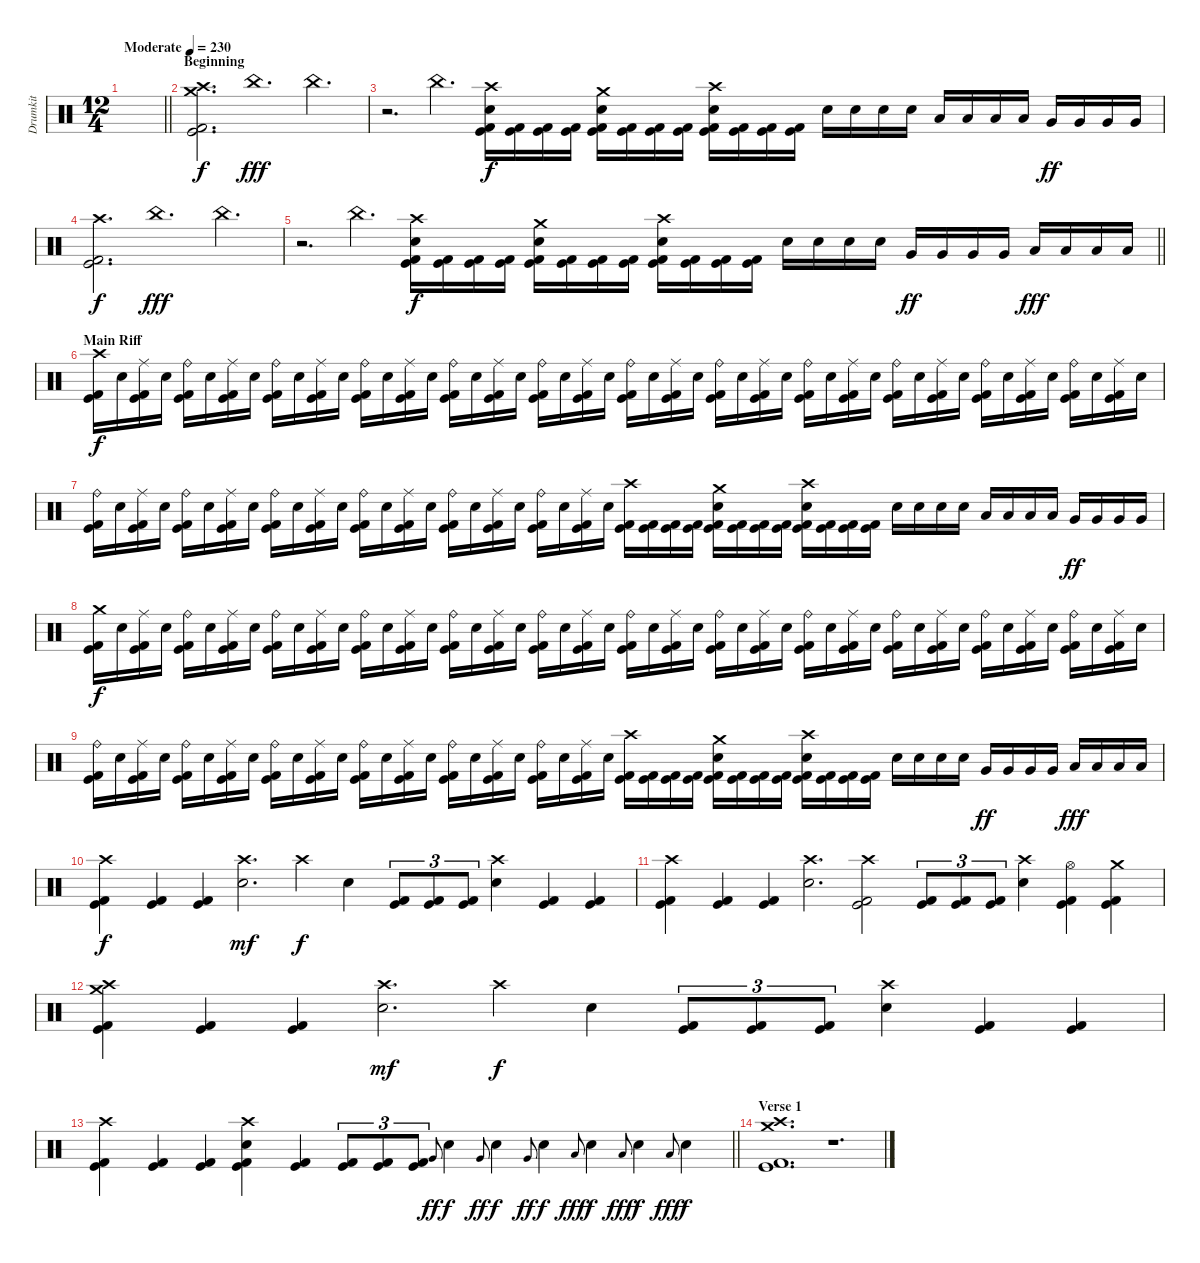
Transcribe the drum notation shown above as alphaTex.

\track ("Drumkit" "Drumkit") {instrument percussion}
\staff {score}
\articulation defaults
\ts (12 4)
\tempo (230 "Moderate")
\clef neutral
\barLineRight lightlight
\ks c
|
\section ("" "Beginning")
("Crash high (hit)" "Crash medium (hit)" "Kick (hit)" "Kick (hit) 2").2{d} "China (hit)".1{d dy fff} "China (hit)".2{d} |
r.2{d} "China (hit)".2{d} ("Crash high (hit)" "Electric Snare (hit)" "Kick (hit)" "Kick (hit) 2").16{dy f} ("Kick (hit)" "Kick (hit) 2").16 ("Kick (hit)" "Kick (hit) 2").16 ("Kick (hit)" "Kick (hit) 2").16 ("Crash medium (hit)" "Electric Snare (hit)" "Kick (hit)" "Kick (hit) 2").16 ("Kick (hit)" "Kick (hit) 2").16 ("Kick (hit)" "Kick (hit) 2").16 ("Kick (hit)" "Kick (hit) 2").16 ("Crash high (hit)" "Electric Snare (hit)" "Kick (hit)" "Kick (hit) 2").16 ("Kick (hit)" "Kick (hit) 2").16 ("Kick (hit)" "Kick (hit) 2").16 ("Kick (hit)" "Kick (hit) 2").16 "Electric Snare (hit)".16 "Electric Snare (hit)".16 "Electric Snare (hit)".16 "Electric Snare (hit)".16 "Low Tom (hit)".16 "Low Tom (hit)".16 "Low Tom (hit)".16 "Low Tom (hit)".16 "Very Low Tom (hit)".16{dy ff} "Very Low Tom (hit)".16 "Very Low Tom (hit)".16 "Very Low Tom (hit)".16 |
("Crash high (hit)" "Kick (hit)" "Kick (hit) 2").2{d dy f} "China (hit)".1{d dy fff} "China (hit)".2{d} |
\barLineRight lightlight
r.2{d} "China (hit)".2{d} ("Crash high (hit)" "Electric Snare (hit)" "Kick (hit)" "Kick (hit) 2").16{dy f} ("Kick (hit)" "Kick (hit) 2").16 ("Kick (hit)" "Kick (hit) 2").16 ("Kick (hit)" "Kick (hit) 2").16 ("Crash medium (hit)" "Electric Snare (hit)" "Kick (hit)" "Kick (hit) 2").16 ("Kick (hit)" "Kick (hit) 2").16 ("Kick (hit)" "Kick (hit) 2").16 ("Kick (hit)" "Kick (hit) 2").16 ("Crash high (hit)" "Electric Snare (hit)" "Kick (hit)" "Kick (hit) 2").16 ("Kick (hit)" "Kick (hit) 2").16 ("Kick (hit)" "Kick (hit) 2").16 ("Kick (hit)" "Kick (hit) 2").16 "Electric Snare (hit)".16 "Electric Snare (hit)".16 "Electric Snare (hit)".16 "Electric Snare (hit)".16 "Very Low Tom (hit)".16{dy ff} "Very Low Tom (hit)".16 "Very Low Tom (hit)".16 "Very Low Tom (hit)".16 "Low Floor Tom (hit)".16{dy fff} "Low Floor Tom (hit)".16 "Low Floor Tom (hit)".16 "Low Floor Tom (hit)".16 |
\section ("" "Main Riff")
("Crash high (hit)" "Kick (hit)" "Kick (hit) 2").16{dy f} "Electric Snare (hit)".16 ("Ride (middle)" "Kick (hit)" "Kick (hit) 2").16 "Electric Snare (hit)".16 ("Ride (bell)" "Kick (hit)" "Kick (hit) 2").16 "Electric Snare (hit)".16 ("Ride (middle)" "Kick (hit)" "Kick (hit) 2").16 "Electric Snare (hit)".16 ("Ride (bell)" "Kick (hit)" "Kick (hit) 2").16 "Electric Snare (hit)".16 ("Ride (middle)" "Kick (hit)" "Kick (hit) 2").16 "Electric Snare (hit)".16 ("Ride (bell)" "Kick (hit)" "Kick (hit) 2").16 "Electric Snare (hit)".16 ("Ride (middle)" "Kick (hit)" "Kick (hit) 2").16 "Electric Snare (hit)".16 ("Ride (bell)" "Kick (hit)" "Kick (hit) 2").16 "Electric Snare (hit)".16 ("Ride (middle)" "Kick (hit)" "Kick (hit) 2").16 "Electric Snare (hit)".16 ("Ride (bell)" "Kick (hit)" "Kick (hit) 2").16 "Electric Snare (hit)".16 ("Ride (middle)" "Kick (hit)" "Kick (hit) 2").16 "Electric Snare (hit)".16 ("Ride (bell)" "Kick (hit)" "Kick (hit) 2").16 "Electric Snare (hit)".16 ("Ride (middle)" "Kick (hit)" "Kick (hit) 2").16 "Electric Snare (hit)".16 ("Ride (bell)" "Kick (hit)" "Kick (hit) 2").16 "Electric Snare (hit)".16 ("Ride (middle)" "Kick (hit)" "Kick (hit) 2").16 "Electric Snare (hit)".16 ("Ride (bell)" "Kick (hit)" "Kick (hit) 2").16 "Electric Snare (hit)".16 ("Ride (middle)" "Kick (hit)" "Kick (hit) 2").16 "Electric Snare (hit)".16 ("Ride (bell)" "Kick (hit)" "Kick (hit) 2").16 "Electric Snare (hit)".16 ("Ride (middle)" "Kick (hit)" "Kick (hit) 2").16 "Electric Snare (hit)".16 ("Ride (bell)" "Kick (hit)" "Kick (hit) 2").16 "Electric Snare (hit)".16 ("Ride (middle)" "Kick (hit)" "Kick (hit) 2").16 "Electric Snare (hit)".16 ("Ride (bell)" "Kick (hit)" "Kick (hit) 2").16 "Electric Snare (hit)".16 ("Ride (middle)" "Kick (hit)" "Kick (hit) 2").16 "Electric Snare (hit)".16 |
("Ride (bell)" "Kick (hit)" "Kick (hit) 2").16 "Electric Snare (hit)".16 ("Ride (middle)" "Kick (hit)" "Kick (hit) 2").16 "Electric Snare (hit)".16 ("Ride (bell)" "Kick (hit)" "Kick (hit) 2").16 "Electric Snare (hit)".16 ("Ride (middle)" "Kick (hit)" "Kick (hit) 2").16 "Electric Snare (hit)".16 ("Ride (bell)" "Kick (hit)" "Kick (hit) 2").16 "Electric Snare (hit)".16 ("Ride (middle)" "Kick (hit)" "Kick (hit) 2").16 "Electric Snare (hit)".16 ("Ride (bell)" "Kick (hit)" "Kick (hit) 2").16 "Electric Snare (hit)".16 ("Ride (middle)" "Kick (hit)" "Kick (hit) 2").16 "Electric Snare (hit)".16 ("Ride (bell)" "Kick (hit)" "Kick (hit) 2").16 "Electric Snare (hit)".16 ("Ride (middle)" "Kick (hit)" "Kick (hit) 2").16 "Electric Snare (hit)".16 ("Ride (bell)" "Kick (hit)" "Kick (hit) 2").16 "Electric Snare (hit)".16 ("Ride (middle)" "Kick (hit)" "Kick (hit) 2").16 "Electric Snare (hit)".16 ("Crash high (hit)" "Kick (hit)" "Kick (hit) 2").16 ("Kick (hit)" "Kick (hit) 2").16 ("Kick (hit)" "Kick (hit) 2").16 ("Kick (hit)" "Kick (hit) 2").16 ("Crash medium (hit)" "Electric Snare (hit)" "Kick (hit)" "Kick (hit) 2").16 ("Kick (hit)" "Kick (hit) 2").16 ("Kick (hit)" "Kick (hit) 2").16 ("Kick (hit)" "Kick (hit) 2").16 ("Crash high (hit)" "Electric Snare (hit)" "Kick (hit)" "Kick (hit) 2").16 ("Kick (hit)" "Kick (hit) 2").16 ("Kick (hit)" "Kick (hit) 2").16 ("Kick (hit)" "Kick (hit) 2").16 "Electric Snare (hit)".16 "Electric Snare (hit)".16 "Electric Snare (hit)".16 "Electric Snare (hit)".16 "Low Tom (hit)".16 "Low Tom (hit)".16 "Low Tom (hit)".16 "Low Tom (hit)".16 "Very Low Tom (hit)".16{dy ff} "Very Low Tom (hit)".16 "Very Low Tom (hit)".16 "Very Low Tom (hit)".16 |
("Crash medium (hit)" "Kick (hit)" "Kick (hit) 2").16{dy f} "Electric Snare (hit)".16 ("Ride (middle)" "Kick (hit)" "Kick (hit) 2").16 "Electric Snare (hit)".16 ("Ride (bell)" "Kick (hit)" "Kick (hit) 2").16 "Electric Snare (hit)".16 ("Ride (middle)" "Kick (hit)" "Kick (hit) 2").16 "Electric Snare (hit)".16 ("Ride (bell)" "Kick (hit)" "Kick (hit) 2").16 "Electric Snare (hit)".16 ("Ride (middle)" "Kick (hit)" "Kick (hit) 2").16 "Electric Snare (hit)".16 ("Ride (bell)" "Kick (hit)" "Kick (hit) 2").16 "Electric Snare (hit)".16 ("Ride (middle)" "Kick (hit)" "Kick (hit) 2").16 "Electric Snare (hit)".16 ("Ride (bell)" "Kick (hit)" "Kick (hit) 2").16 "Electric Snare (hit)".16 ("Ride (middle)" "Kick (hit)" "Kick (hit) 2").16 "Electric Snare (hit)".16 ("Ride (bell)" "Kick (hit)" "Kick (hit) 2").16 "Electric Snare (hit)".16 ("Ride (middle)" "Kick (hit)" "Kick (hit) 2").16 "Electric Snare (hit)".16 ("Ride (bell)" "Kick (hit)" "Kick (hit) 2").16 "Electric Snare (hit)".16 ("Ride (middle)" "Kick (hit)" "Kick (hit) 2").16 "Electric Snare (hit)".16 ("Ride (bell)" "Kick (hit)" "Kick (hit) 2").16 "Electric Snare (hit)".16 ("Ride (middle)" "Kick (hit)" "Kick (hit) 2").16 "Electric Snare (hit)".16 ("Ride (bell)" "Kick (hit)" "Kick (hit) 2").16 "Electric Snare (hit)".16 ("Ride (middle)" "Kick (hit)" "Kick (hit) 2").16 "Electric Snare (hit)".16 ("Ride (bell)" "Kick (hit)" "Kick (hit) 2").16 "Electric Snare (hit)".16 ("Ride (middle)" "Kick (hit)" "Kick (hit) 2").16 "Electric Snare (hit)".16 ("Ride (bell)" "Kick (hit)" "Kick (hit) 2").16 "Electric Snare (hit)".16 ("Ride (middle)" "Kick (hit)" "Kick (hit) 2").16 "Electric Snare (hit)".16 ("Ride (bell)" "Kick (hit)" "Kick (hit) 2").16 "Electric Snare (hit)".16 ("Ride (middle)" "Kick (hit)" "Kick (hit) 2").16 "Electric Snare (hit)".16 |
("Ride (bell)" "Kick (hit)" "Kick (hit) 2").16 "Electric Snare (hit)".16 ("Ride (middle)" "Kick (hit)" "Kick (hit) 2").16 "Electric Snare (hit)".16 ("Ride (bell)" "Kick (hit)" "Kick (hit) 2").16 "Electric Snare (hit)".16 ("Ride (middle)" "Kick (hit)" "Kick (hit) 2").16 "Electric Snare (hit)".16 ("Ride (bell)" "Kick (hit)" "Kick (hit) 2").16 "Electric Snare (hit)".16 ("Ride (middle)" "Kick (hit)" "Kick (hit) 2").16 "Electric Snare (hit)".16 ("Ride (bell)" "Kick (hit)" "Kick (hit) 2").16 "Electric Snare (hit)".16 ("Ride (middle)" "Kick (hit)" "Kick (hit) 2").16 "Electric Snare (hit)".16 ("Ride (bell)" "Kick (hit)" "Kick (hit) 2").16 "Electric Snare (hit)".16 ("Ride (middle)" "Kick (hit)" "Kick (hit) 2").16 "Electric Snare (hit)".16 ("Ride (bell)" "Kick (hit)" "Kick (hit) 2").16 "Electric Snare (hit)".16 ("Ride (middle)" "Kick (hit)" "Kick (hit) 2").16 "Electric Snare (hit)".16 ("Crash high (hit)" "Kick (hit)" "Kick (hit) 2").16 ("Kick (hit)" "Kick (hit) 2").16 ("Kick (hit)" "Kick (hit) 2").16 ("Kick (hit)" "Kick (hit) 2").16 ("Crash medium (hit)" "Electric Snare (hit)" "Kick (hit)" "Kick (hit) 2").16 ("Kick (hit)" "Kick (hit) 2").16 ("Kick (hit)" "Kick (hit) 2").16 ("Kick (hit)" "Kick (hit) 2").16 ("Crash high (hit)" "Electric Snare (hit)" "Kick (hit)" "Kick (hit) 2").16 ("Kick (hit)" "Kick (hit) 2").16 ("Kick (hit)" "Kick (hit) 2").16 ("Kick (hit)" "Kick (hit) 2").16 "Electric Snare (hit)".16 "Electric Snare (hit)".16 "Electric Snare (hit)".16 "Electric Snare (hit)".16 "Very Low Tom (hit)".16{dy ff} "Very Low Tom (hit)".16 "Very Low Tom (hit)".16 "Very Low Tom (hit)".16 "Low Floor Tom (hit)".16{dy fff} "Low Floor Tom (hit)".16 "Low Floor Tom (hit)".16 "Low Floor Tom (hit)".16 |
("Crash high (hit)" "Kick (hit)" "Kick (hit) 2").4{dy f} ("Kick (hit)" "Kick (hit) 2").4 ("Kick (hit)" "Kick (hit) 2").4 ("Crash high (hit)" "Electric Snare (hit)").2{d dy mf} "Crash high (hit)".4{dy f} "Electric Snare (hit)".4 ("Kick (hit)" "Kick (hit) 2").8{tu (3 2)} ("Kick (hit)" "Kick (hit) 2").8{tu (3 2)} ("Kick (hit)" "Kick (hit) 2").8{tu (3 2)} ("Crash high (hit)" "Electric Snare (hit)").4 ("Kick (hit)" "Kick (hit) 2").4 ("Kick (hit)" "Kick (hit) 2").4 |
("Crash high (hit)" "Kick (hit)" "Kick (hit) 2").4 ("Kick (hit)" "Kick (hit) 2").4 ("Kick (hit)" "Kick (hit) 2").4 ("Crash high (hit)" "Electric Snare (hit)").2{d} ("Crash high (hit)" "Kick (hit)" "Kick (hit) 2").2 ("Kick (hit)" "Kick (hit) 2").8{tu (3 2)} ("Kick (hit)" "Kick (hit) 2").8{tu (3 2)} ("Kick (hit)" "Kick (hit) 2").8{tu (3 2)} ("Crash high (hit)" "Electric Snare (hit)").4 ("Hi-Hat (open)" "Kick (hit)" "Kick (hit) 2").4 ("Crash medium (hit)" "Kick (hit)" "Kick (hit) 2").4 |
("Crash high (hit)" "Crash medium (hit)" "Kick (hit)" "Kick (hit) 2").4 ("Kick (hit)" "Kick (hit) 2").4 ("Kick (hit)" "Kick (hit) 2").4 ("Crash high (hit)" "Electric Snare (hit)").2{d dy mf} "Crash high (hit)".4{dy f} "Electric Snare (hit)".4 ("Kick (hit)" "Kick (hit) 2").8{tu (3 2)} ("Kick (hit)" "Kick (hit) 2").8{tu (3 2)} ("Kick (hit)" "Kick (hit) 2").8{tu (3 2)} ("Crash high (hit)" "Electric Snare (hit)").4 ("Kick (hit)" "Kick (hit) 2").4 ("Kick (hit)" "Kick (hit) 2").4 |
\barLineRight lightlight
("Crash high (hit)" "Kick (hit)" "Kick (hit) 2").4 ("Kick (hit)" "Kick (hit) 2").4 ("Kick (hit)" "Kick (hit) 2").4 ("Crash high (hit)" "Electric Snare (hit)" "Kick (hit)" "Kick (hit) 2").4 ("Kick (hit)" "Kick (hit) 2").4 ("Kick (hit)" "Kick (hit) 2").8{tu (3 2)} ("Kick (hit)" "Kick (hit) 2").8{tu (3 2)} ("Kick (hit)" "Kick (hit) 2").8{tu (3 2)} "Very Low Tom (hit)".8{gr onbeat dy ff} "Electric Snare (hit)".4{dy f} "Very Low Tom (hit)".8{gr onbeat dy ff} "Electric Snare (hit)".4{dy f} "Very Low Tom (hit)".8{gr onbeat dy ff} "Electric Snare (hit)".4{dy f} "Low Floor Tom (hit)".8{gr onbeat dy fff} "Electric Snare (hit)".4{dy f} "Low Floor Tom (hit)".8{gr onbeat dy fff} "Electric Snare (hit)".4{dy f} "Low Floor Tom (hit)".8{gr onbeat dy fff} "Electric Snare (hit)".4{dy f} |
\section ("" "Verse 1")
("Crash high (hit)" "Crash medium (hit)" "Kick (hit)" "Kick (hit) 2").1{d} r.1{d}
